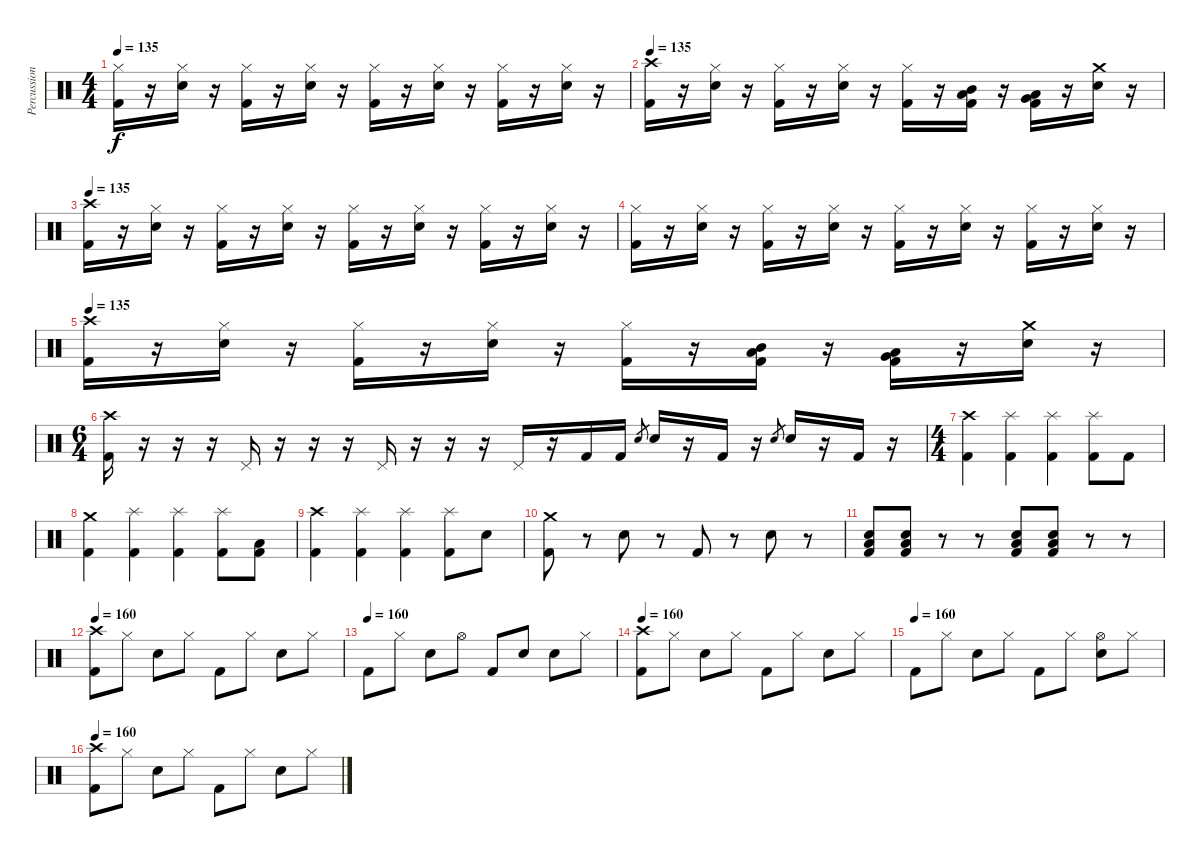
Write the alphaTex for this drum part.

\track ("Percussion" "Percussion") {instrument percussion}
\staff {score}
\articulation defaults
\ts (4 4)
\tempo 135
\clef neutral
\ks c
("Hi-Hat (closed)" "Kick (hit) 2").16{dy f} r.16 ("Hi-Hat (closed)" "Snare (hit) 2").16 r.16 ("Hi-Hat (closed)" "Kick (hit) 2").16 r.16 ("Hi-Hat (closed)" "Snare (hit) 2").16 r.16 ("Hi-Hat (closed)" "Kick (hit) 2").16 r.16 ("Hi-Hat (closed)" "Snare (hit) 2").16 r.16 ("Hi-Hat (closed)" "Kick (hit) 2").16 r.16 ("Hi-Hat (closed)" "Snare (hit) 2").16 r.16 |
\tempo 135
("Crash high (hit)" "Kick (hit) 2").16 r.16 ("Hi-Hat (closed)" "Snare (hit) 2").16 r.16 ("Hi-Hat (closed)" "Kick (hit) 2").16 r.16 ("Hi-Hat (closed)" "Snare (hit) 2").16 r.16 ("Hi-Hat (closed)" "Kick (hit) 2").16 r.16 ("Mid Tom (hit)" "Low Tom (hit)" "Kick (hit) 2").16 r.16 ("Low Tom (hit)" "Very Low Tom (hit)" "Kick (hit) 2").16 r.16 ("Crash medium (hit)" "Snare (hit) 2").16 r.16 |
\tempo 135
("Crash high (hit)" "Kick (hit) 2").16 r.16 ("Hi-Hat (closed)" "Snare (hit) 2").16 r.16 ("Hi-Hat (closed)" "Kick (hit) 2").16 r.16 ("Hi-Hat (closed)" "Snare (hit) 2").16 r.16 ("Hi-Hat (closed)" "Kick (hit) 2").16 r.16 ("Hi-Hat (closed)" "Snare (hit) 2").16 r.16 ("Hi-Hat (closed)" "Kick (hit) 2").16 r.16 ("Hi-Hat (closed)" "Snare (hit) 2").16 r.16 |
("Hi-Hat (closed)" "Kick (hit) 2").16 r.16 ("Hi-Hat (closed)" "Snare (hit) 2").16 r.16 ("Hi-Hat (closed)" "Kick (hit) 2").16 r.16 ("Hi-Hat (closed)" "Snare (hit) 2").16 r.16 ("Hi-Hat (closed)" "Kick (hit) 2").16 r.16 ("Hi-Hat (closed)" "Snare (hit) 2").16 r.16 ("Hi-Hat (closed)" "Kick (hit) 2").16 r.16 ("Hi-Hat (closed)" "Snare (hit) 2").16 r.16 |
\tempo 135
("Crash high (hit)" "Kick (hit) 2").16 r.16 ("Hi-Hat (closed)" "Snare (hit) 2").16 r.16 ("Hi-Hat (closed)" "Kick (hit) 2").16 r.16 ("Hi-Hat (closed)" "Snare (hit) 2").16 r.16 ("Hi-Hat (closed)" "Kick (hit) 2").16 r.16 ("Mid Tom (hit)" "Low Tom (hit)" "Kick (hit) 2").16 r.16 ("Low Tom (hit)" "Very Low Tom (hit)" "Kick (hit) 2").16 r.16 ("Crash medium (hit)" "Snare (hit) 2").16 r.16 |
\ts (6 4)
("Crash high (hit)" "Kick (hit) 2").16 r.16 r.16 r.16 "Pedal Hi-Hat (hit)".16 r.16 r.16 r.16 "Pedal Hi-Hat (hit)".16 r.16 r.16 r.16 "Pedal Hi-Hat (hit)".16 r.16 "Kick (hit) 2".16 "Kick (hit) 2".16 "Snare (hit) 2".8{gr} "Snare (hit) 2".16 r.16 "Kick (hit) 2".16 r.16 "Snare (hit) 2".8{gr} "Snare (hit) 2".16 r.16 "Kick (hit) 2".16 r.16 |
\ts (4 4)
("Crash high (hit)" "Kick (hit) 2").4 ("Splash (hit)" "Kick (hit) 2").4 ("Splash (hit)" "Kick (hit) 2").4 ("Splash (hit)" "Kick (hit) 2").8 "Kick (hit) 2".8 |
("Crash medium (hit)" "Kick (hit) 2").4 ("Splash (hit)" "Kick (hit) 2").4 ("Splash (hit)" "Kick (hit) 2").4 ("Splash (hit)" "Kick (hit) 2").8 ("Low Floor Tom (hit)" "Kick (hit) 2").8 |
("Crash high (hit)" "Kick (hit) 2").4 ("Splash (hit)" "Kick (hit) 2").4 ("Splash (hit)" "Kick (hit) 2").4 ("Splash (hit)" "Kick (hit) 2").8 "Snare (hit) 2".8 |
("Crash medium (hit)" "Kick (hit) 2").8 r.8 "Snare (hit) 2".8 r.8 "Kick (hit) 2".8 r.8 "Snare (hit) 2".8 r.8 |
("Low Floor Tom (hit)" "Snare (hit) 2" "Kick (hit) 2").8 ("Low Floor Tom (hit)" "Snare (hit) 2" "Kick (hit) 2").8 r.8 r.8 ("Low Floor Tom (hit)" "Snare (hit) 2" "Kick (hit) 2").8 ("Low Floor Tom (hit)" "Snare (hit) 2" "Kick (hit) 2").8 r.8 r.8 |
\tempo 160
("Crash high (hit)" "Kick (hit) 2").8 "Hi-Hat (closed)".8 "Snare (hit) 2".8 "Hi-Hat (closed)".8 "Kick (hit) 2".8 "Hi-Hat (closed)".8 "Snare (hit) 2".8 "Hi-Hat (closed)".8 |
\tempo (160)
"Kick (hit) 2".8 "Hi-Hat (closed)".8 "Snare (hit) 2".8 "Hi-Hat (open)".8 "Kick (hit) 2".8 "Snare (hit) 2".8 "Snare (hit) 2".8 "Hi-Hat (closed)".8 |
\tempo 160
("Crash high (hit)" "Kick (hit) 2").8 "Hi-Hat (closed)".8 "Snare (hit) 2".8 "Hi-Hat (closed)".8 "Kick (hit) 2".8 "Hi-Hat (closed)".8 "Snare (hit) 2".8 "Hi-Hat (closed)".8 |
\tempo (160)
"Kick (hit) 2".8 "Hi-Hat (closed)".8 "Snare (hit) 2".8 "Hi-Hat (closed)".8 "Kick (hit) 2".8 "Hi-Hat (closed)".8 ("Hi-Hat (open)" "Snare (hit) 2").8 "Hi-Hat (closed)".8 |
\tempo 160
("Crash high (hit)" "Kick (hit) 2").8 "Hi-Hat (closed)".8 "Snare (hit) 2".8 "Hi-Hat (closed)".8 "Kick (hit) 2".8 "Hi-Hat (closed)".8 "Snare (hit) 2".8 "Hi-Hat (closed)".8
